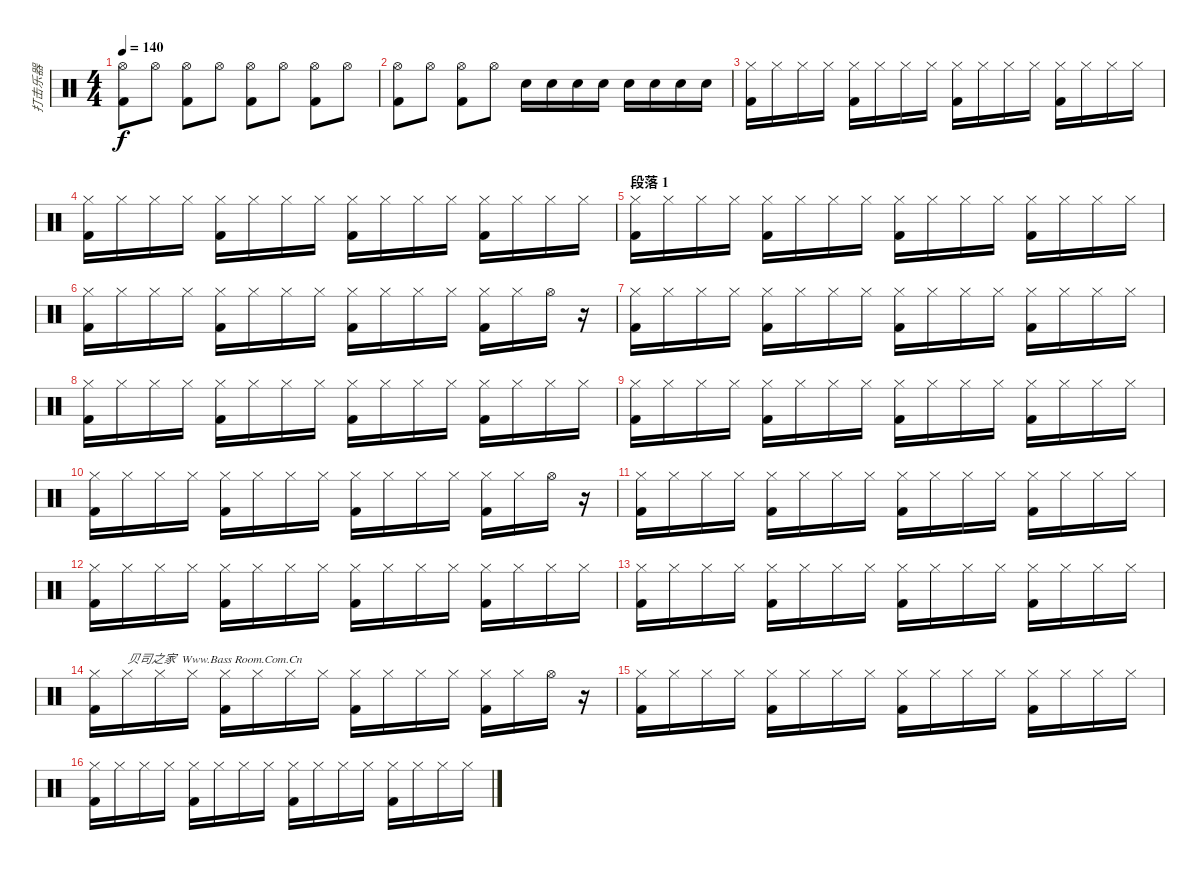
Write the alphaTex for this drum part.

\track ("打击乐器" "打击乐器") {instrument percussion}
\staff {score}
\articulation defaults
\ts (4 4)
\tempo 140
\clef neutral
\ks c
("Kick (hit) 2" "Hi-Hat (open)").8{dy f} "Hi-Hat (open)".8 ("Kick (hit) 2" "Hi-Hat (open)").8 "Hi-Hat (open)".8 ("Kick (hit) 2" "Hi-Hat (open)").8 "Hi-Hat (open)".8 ("Kick (hit) 2" "Hi-Hat (open)").8 "Hi-Hat (open)".8 |
("Kick (hit) 2" "Hi-Hat (open)").8 "Hi-Hat (open)".8 ("Kick (hit) 2" "Hi-Hat (open)").8 "Hi-Hat (open)".8 "Snare (hit) 2".16 "Snare (hit) 2".16 "Snare (hit) 2".16 "Snare (hit) 2".16 "Snare (hit) 2".16 "Snare (hit) 2".16 "Snare (hit) 2".16 "Snare (hit) 2".16 |
("Hi-Hat (closed)" "Kick (hit) 2").16 "Hi-Hat (closed)".16 "Hi-Hat (closed)".16 "Hi-Hat (closed)".16 ("Hi-Hat (closed)" "Kick (hit) 2").16 "Hi-Hat (closed)".16 "Hi-Hat (closed)".16 "Hi-Hat (closed)".16 ("Hi-Hat (closed)" "Kick (hit) 2").16 "Hi-Hat (closed)".16 "Hi-Hat (closed)".16 "Hi-Hat (closed)".16 ("Hi-Hat (closed)" "Kick (hit) 2").16 "Hi-Hat (closed)".16 "Hi-Hat (closed)".16 "Hi-Hat (closed)".16 |
("Hi-Hat (closed)" "Kick (hit) 2").16 "Hi-Hat (closed)".16 "Hi-Hat (closed)".16 "Hi-Hat (closed)".16 ("Hi-Hat (closed)" "Kick (hit) 2").16 "Hi-Hat (closed)".16 "Hi-Hat (closed)".16 "Hi-Hat (closed)".16 ("Hi-Hat (closed)" "Kick (hit) 2").16 "Hi-Hat (closed)".16 "Hi-Hat (closed)".16 "Hi-Hat (closed)".16 ("Hi-Hat (closed)" "Kick (hit) 2").16 "Hi-Hat (closed)".16 "Hi-Hat (closed)".16 "Hi-Hat (closed)".16 |
\section ("" "段落 1")
("Hi-Hat (closed)" "Kick (hit) 2").16 "Hi-Hat (closed)".16 "Hi-Hat (closed)".16 "Hi-Hat (closed)".16 ("Hi-Hat (closed)" "Kick (hit) 2").16 "Hi-Hat (closed)".16 "Hi-Hat (closed)".16 "Hi-Hat (closed)".16 ("Hi-Hat (closed)" "Kick (hit) 2").16 "Hi-Hat (closed)".16 "Hi-Hat (closed)".16 "Hi-Hat (closed)".16 ("Hi-Hat (closed)" "Kick (hit) 2").16 "Hi-Hat (closed)".16 "Hi-Hat (closed)".16 "Hi-Hat (closed)".16 |
("Hi-Hat (closed)" "Kick (hit) 2").16 "Hi-Hat (closed)".16 "Hi-Hat (closed)".16 "Hi-Hat (closed)".16 ("Hi-Hat (closed)" "Kick (hit) 2").16 "Hi-Hat (closed)".16 "Hi-Hat (closed)".16 "Hi-Hat (closed)".16 ("Hi-Hat (closed)" "Kick (hit) 2").16 "Hi-Hat (closed)".16 "Hi-Hat (closed)".16 "Hi-Hat (closed)".16 ("Hi-Hat (closed)" "Kick (hit) 2").16 "Hi-Hat (closed)".16 "Hi-Hat (open)".16 r.16 |
("Hi-Hat (closed)" "Kick (hit) 2").16 "Hi-Hat (closed)".16 "Hi-Hat (closed)".16 "Hi-Hat (closed)".16 ("Hi-Hat (closed)" "Kick (hit) 2").16 "Hi-Hat (closed)".16 "Hi-Hat (closed)".16 "Hi-Hat (closed)".16 ("Hi-Hat (closed)" "Kick (hit) 2").16 "Hi-Hat (closed)".16 "Hi-Hat (closed)".16 "Hi-Hat (closed)".16 ("Hi-Hat (closed)" "Kick (hit) 2").16 "Hi-Hat (closed)".16 "Hi-Hat (closed)".16 "Hi-Hat (closed)".16 |
("Hi-Hat (closed)" "Kick (hit) 2").16 "Hi-Hat (closed)".16 "Hi-Hat (closed)".16 "Hi-Hat (closed)".16 ("Hi-Hat (closed)" "Kick (hit) 2").16 "Hi-Hat (closed)".16 "Hi-Hat (closed)".16 "Hi-Hat (closed)".16 ("Hi-Hat (closed)" "Kick (hit) 2").16 "Hi-Hat (closed)".16 "Hi-Hat (closed)".16 "Hi-Hat (closed)".16 ("Hi-Hat (closed)" "Kick (hit) 2").16 "Hi-Hat (closed)".16 "Hi-Hat (closed)".16 "Hi-Hat (closed)".16 |
("Hi-Hat (closed)" "Kick (hit) 2").16 "Hi-Hat (closed)".16 "Hi-Hat (closed)".16 "Hi-Hat (closed)".16 ("Hi-Hat (closed)" "Kick (hit) 2").16 "Hi-Hat (closed)".16 "Hi-Hat (closed)".16 "Hi-Hat (closed)".16 ("Hi-Hat (closed)" "Kick (hit) 2").16 "Hi-Hat (closed)".16 "Hi-Hat (closed)".16 "Hi-Hat (closed)".16 ("Hi-Hat (closed)" "Kick (hit) 2").16 "Hi-Hat (closed)".16 "Hi-Hat (closed)".16 "Hi-Hat (closed)".16 |
("Hi-Hat (closed)" "Kick (hit) 2").16 "Hi-Hat (closed)".16 "Hi-Hat (closed)".16 "Hi-Hat (closed)".16 ("Hi-Hat (closed)" "Kick (hit) 2").16 "Hi-Hat (closed)".16 "Hi-Hat (closed)".16 "Hi-Hat (closed)".16 ("Hi-Hat (closed)" "Kick (hit) 2").16 "Hi-Hat (closed)".16 "Hi-Hat (closed)".16 "Hi-Hat (closed)".16 ("Hi-Hat (closed)" "Kick (hit) 2").16 "Hi-Hat (closed)".16 "Hi-Hat (open)".16 r.16 |
("Hi-Hat (closed)" "Kick (hit) 2").16 "Hi-Hat (closed)".16 "Hi-Hat (closed)".16 "Hi-Hat (closed)".16 ("Hi-Hat (closed)" "Kick (hit) 2").16 "Hi-Hat (closed)".16 "Hi-Hat (closed)".16 "Hi-Hat (closed)".16 ("Hi-Hat (closed)" "Kick (hit) 2").16 "Hi-Hat (closed)".16 "Hi-Hat (closed)".16 "Hi-Hat (closed)".16 ("Hi-Hat (closed)" "Kick (hit) 2").16 "Hi-Hat (closed)".16 "Hi-Hat (closed)".16 "Hi-Hat (closed)".16 |
("Hi-Hat (closed)" "Kick (hit) 2").16 "Hi-Hat (closed)".16 "Hi-Hat (closed)".16 "Hi-Hat (closed)".16 ("Hi-Hat (closed)" "Kick (hit) 2").16 "Hi-Hat (closed)".16 "Hi-Hat (closed)".16 "Hi-Hat (closed)".16 ("Hi-Hat (closed)" "Kick (hit) 2").16 "Hi-Hat (closed)".16 "Hi-Hat (closed)".16 "Hi-Hat (closed)".16 ("Hi-Hat (closed)" "Kick (hit) 2").16 "Hi-Hat (closed)".16 "Hi-Hat (closed)".16 "Hi-Hat (closed)".16 |
("Hi-Hat (closed)" "Kick (hit) 2").16 "Hi-Hat (closed)".16 "Hi-Hat (closed)".16 "Hi-Hat (closed)".16 ("Hi-Hat (closed)" "Kick (hit) 2").16 "Hi-Hat (closed)".16 "Hi-Hat (closed)".16 "Hi-Hat (closed)".16 ("Hi-Hat (closed)" "Kick (hit) 2").16 "Hi-Hat (closed)".16 "Hi-Hat (closed)".16 "Hi-Hat (closed)".16 ("Hi-Hat (closed)" "Kick (hit) 2").16 "Hi-Hat (closed)".16 "Hi-Hat (closed)".16 "Hi-Hat (closed)".16 |
("Hi-Hat (closed)" "Kick (hit) 2").16 "Hi-Hat (closed)".16{txt "贝司之家  Www.Bass Room.Com.Cn"} "Hi-Hat (closed)".16 "Hi-Hat (closed)".16 ("Hi-Hat (closed)" "Kick (hit) 2").16 "Hi-Hat (closed)".16 "Hi-Hat (closed)".16 "Hi-Hat (closed)".16 ("Hi-Hat (closed)" "Kick (hit) 2").16 "Hi-Hat (closed)".16 "Hi-Hat (closed)".16 "Hi-Hat (closed)".16 ("Hi-Hat (closed)" "Kick (hit) 2").16 "Hi-Hat (closed)".16 "Hi-Hat (open)".16 r.16 |
("Hi-Hat (closed)" "Kick (hit) 2").16 "Hi-Hat (closed)".16 "Hi-Hat (closed)".16 "Hi-Hat (closed)".16 ("Hi-Hat (closed)" "Kick (hit) 2").16 "Hi-Hat (closed)".16 "Hi-Hat (closed)".16 "Hi-Hat (closed)".16 ("Hi-Hat (closed)" "Kick (hit) 2").16 "Hi-Hat (closed)".16 "Hi-Hat (closed)".16 "Hi-Hat (closed)".16 ("Hi-Hat (closed)" "Kick (hit) 2").16 "Hi-Hat (closed)".16 "Hi-Hat (closed)".16 "Hi-Hat (closed)".16 |
("Hi-Hat (closed)" "Kick (hit) 2").16 "Hi-Hat (closed)".16 "Hi-Hat (closed)".16 "Hi-Hat (closed)".16 ("Hi-Hat (closed)" "Kick (hit) 2").16 "Hi-Hat (closed)".16 "Hi-Hat (closed)".16 "Hi-Hat (closed)".16 ("Hi-Hat (closed)" "Kick (hit) 2").16 "Hi-Hat (closed)".16 "Hi-Hat (closed)".16 "Hi-Hat (closed)".16 ("Hi-Hat (closed)" "Kick (hit) 2").16 "Hi-Hat (closed)".16 "Hi-Hat (closed)".16 "Hi-Hat (closed)".16
